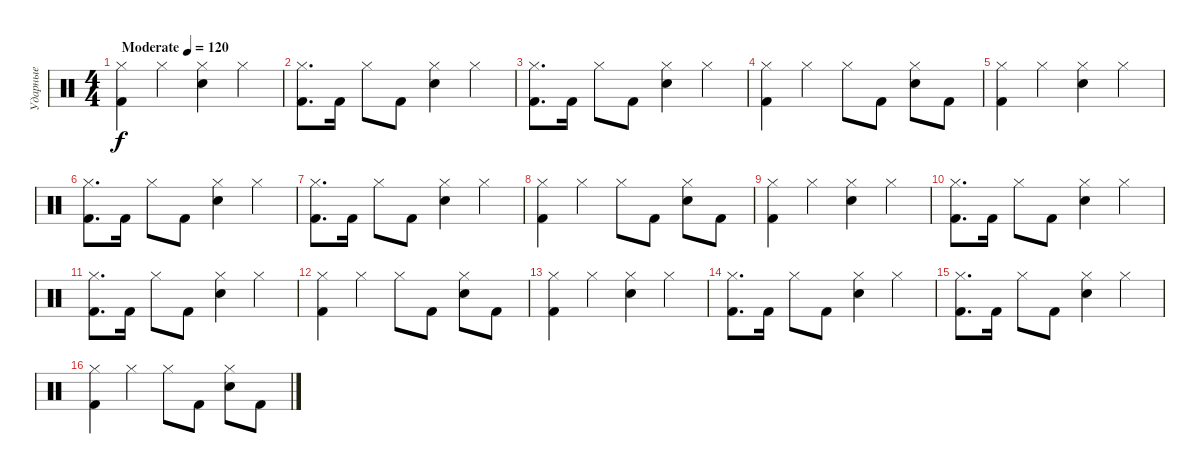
\track ("Ударные" "Ударные") {instrument percussion}
\staff {score}
\articulation defaults
\ts (4 4)
\tempo (120 "Moderate")
\clef neutral
\ks c
("Hi-Hat (closed)" "Kick (hit) 2").4{dy f} "Hi-Hat (closed)".4 ("Hi-Hat (closed)" "Electric Snare (hit)").4 "Hi-Hat (closed)".4 |
("Hi-Hat (closed)" "Kick (hit) 2").8{d} "Kick (hit) 2".16 "Hi-Hat (closed)".8 "Kick (hit) 2".8 ("Hi-Hat (closed)" "Electric Snare (hit)").4 "Hi-Hat (closed)".4 |
("Hi-Hat (closed)" "Kick (hit) 2").8{d} "Kick (hit) 2".16 "Hi-Hat (closed)".8 "Kick (hit) 2".8 ("Hi-Hat (closed)" "Electric Snare (hit)").4 "Hi-Hat (closed)".4 |
("Hi-Hat (closed)" "Kick (hit) 2").4 "Hi-Hat (closed)".4 "Hi-Hat (closed)".8 "Kick (hit) 2".8 ("Hi-Hat (closed)" "Electric Snare (hit)").8 "Kick (hit) 2".8 |
("Hi-Hat (closed)" "Kick (hit) 2").4 "Hi-Hat (closed)".4 ("Hi-Hat (closed)" "Electric Snare (hit)").4 "Hi-Hat (closed)".4 |
("Hi-Hat (closed)" "Kick (hit) 2").8{d} "Kick (hit) 2".16 "Hi-Hat (closed)".8 "Kick (hit) 2".8 ("Hi-Hat (closed)" "Electric Snare (hit)").4 "Hi-Hat (closed)".4 |
("Hi-Hat (closed)" "Kick (hit) 2").8{d} "Kick (hit) 2".16 "Hi-Hat (closed)".8 "Kick (hit) 2".8 ("Hi-Hat (closed)" "Electric Snare (hit)").4 "Hi-Hat (closed)".4 |
("Hi-Hat (closed)" "Kick (hit) 2").4 "Hi-Hat (closed)".4 "Hi-Hat (closed)".8 "Kick (hit) 2".8 ("Hi-Hat (closed)" "Electric Snare (hit)").8 "Kick (hit) 2".8 |
("Hi-Hat (closed)" "Kick (hit) 2").4 "Hi-Hat (closed)".4 ("Hi-Hat (closed)" "Electric Snare (hit)").4 "Hi-Hat (closed)".4 |
("Hi-Hat (closed)" "Kick (hit) 2").8{d} "Kick (hit) 2".16 "Hi-Hat (closed)".8 "Kick (hit) 2".8 ("Hi-Hat (closed)" "Electric Snare (hit)").4 "Hi-Hat (closed)".4 |
("Hi-Hat (closed)" "Kick (hit) 2").8{d} "Kick (hit) 2".16 "Hi-Hat (closed)".8 "Kick (hit) 2".8 ("Hi-Hat (closed)" "Electric Snare (hit)").4 "Hi-Hat (closed)".4 |
("Hi-Hat (closed)" "Kick (hit) 2").4 "Hi-Hat (closed)".4 "Hi-Hat (closed)".8 "Kick (hit) 2".8 ("Hi-Hat (closed)" "Electric Snare (hit)").8 "Kick (hit) 2".8 |
("Hi-Hat (closed)" "Kick (hit) 2").4 "Hi-Hat (closed)".4 ("Hi-Hat (closed)" "Electric Snare (hit)").4 "Hi-Hat (closed)".4 |
("Hi-Hat (closed)" "Kick (hit) 2").8{d} "Kick (hit) 2".16 "Hi-Hat (closed)".8 "Kick (hit) 2".8 ("Hi-Hat (closed)" "Electric Snare (hit)").4 "Hi-Hat (closed)".4 |
("Hi-Hat (closed)" "Kick (hit) 2").8{d} "Kick (hit) 2".16 "Hi-Hat (closed)".8 "Kick (hit) 2".8 ("Hi-Hat (closed)" "Electric Snare (hit)").4 "Hi-Hat (closed)".4 |
("Hi-Hat (closed)" "Kick (hit) 2").4 "Hi-Hat (closed)".4 "Hi-Hat (closed)".8 "Kick (hit) 2".8 ("Hi-Hat (closed)" "Electric Snare (hit)").8 "Kick (hit) 2".8
